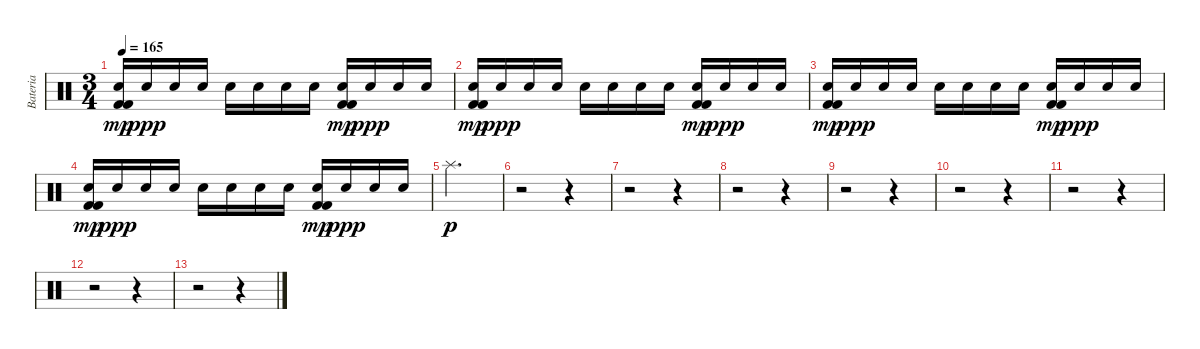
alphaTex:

\track ("Bateria" "Bateria") {instrument percussion}
\staff {score}
\articulation defaults
\ts (3 4)
\tempo 165
\clef neutral
\ks c
("Electric Snare (hit)" "Kick (hit) 2" "Kick (hit) 2").16{dy mp} "Electric Snare (hit)".16{dy ppp} "Electric Snare (hit)".16 "Electric Snare (hit)".16 "Electric Snare (hit)".16 "Electric Snare (hit)".16 "Electric Snare (hit)".16 "Electric Snare (hit)".16 ("Electric Snare (hit)" "Kick (hit) 2" "Kick (hit) 2").16{dy mp} "Electric Snare (hit)".16{dy ppp} "Electric Snare (hit)".16 "Electric Snare (hit)".16 |
("Electric Snare (hit)" "Kick (hit) 2" "Kick (hit) 2").16{dy mp} "Electric Snare (hit)".16{dy ppp} "Electric Snare (hit)".16 "Electric Snare (hit)".16 "Electric Snare (hit)".16 "Electric Snare (hit)".16 "Electric Snare (hit)".16 "Electric Snare (hit)".16 ("Electric Snare (hit)" "Kick (hit) 2" "Kick (hit) 2").16{dy mp} "Electric Snare (hit)".16{dy ppp} "Electric Snare (hit)".16 "Electric Snare (hit)".16 |
("Electric Snare (hit)" "Kick (hit) 2" "Kick (hit) 2").16{dy mp} "Electric Snare (hit)".16{dy ppp} "Electric Snare (hit)".16 "Electric Snare (hit)".16 "Electric Snare (hit)".16 "Electric Snare (hit)".16 "Electric Snare (hit)".16 "Electric Snare (hit)".16 ("Electric Snare (hit)" "Kick (hit) 2" "Kick (hit) 2").16{dy mp} "Electric Snare (hit)".16{dy ppp} "Electric Snare (hit)".16 "Electric Snare (hit)".16 |
("Electric Snare (hit)" "Kick (hit) 2" "Kick (hit) 2").16{dy mp} "Electric Snare (hit)".16{dy ppp} "Electric Snare (hit)".16 "Electric Snare (hit)".16 "Electric Snare (hit)".16 "Electric Snare (hit)".16 "Electric Snare (hit)".16 "Electric Snare (hit)".16 ("Electric Snare (hit)" "Kick (hit) 2" "Kick (hit) 2").16{dy mp} "Electric Snare (hit)".16{dy ppp} "Electric Snare (hit)".16 "Electric Snare (hit)".16 |
"Splash (hit)".2{d dy p} |
r.2 r.4 |
r.2 r.4 |
r.2 r.4 |
r.2 r.4 |
r.2 r.4 |
r.2 r.4 |
r.2 r.4 |
r.2 r.4
